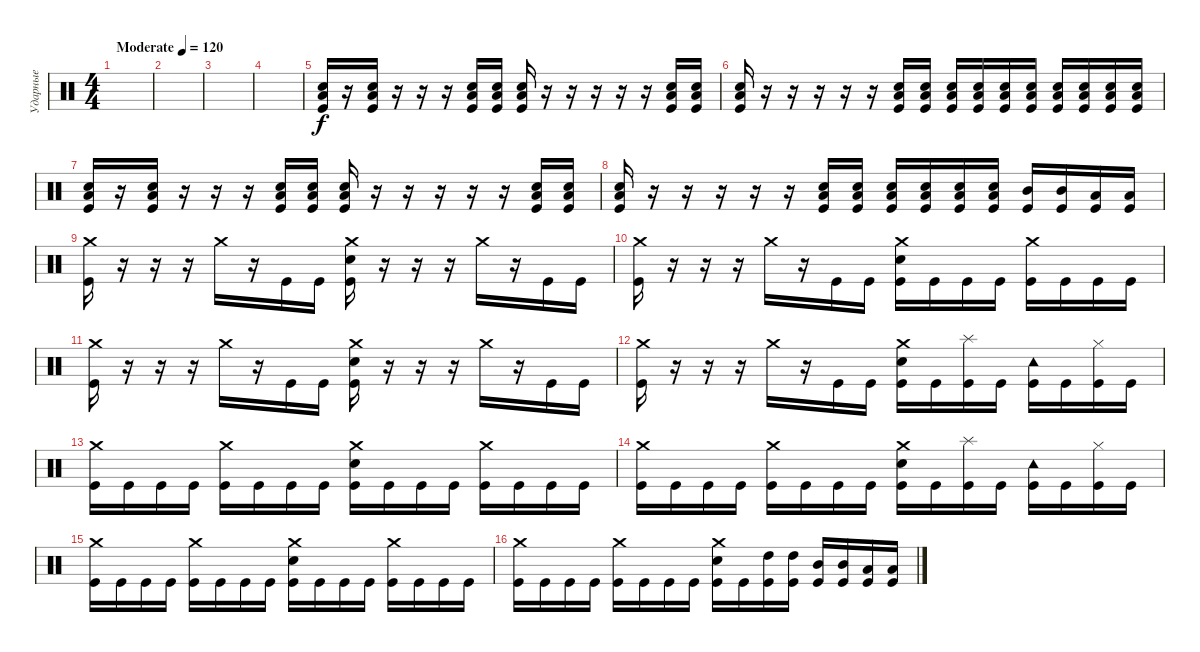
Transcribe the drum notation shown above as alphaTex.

\track ("Ударные" "Ударные") {instrument percussion}
\staff {score}
\articulation defaults
\ts (4 4)
\tempo (120 "Moderate")
\clef neutral
\ks c
|
|
|
|
("Low Tom (hit)" "Snare (hit) 2" "Kick (hit)").16 r.16 ("Low Tom (hit)" "Snare (hit) 2" "Kick (hit)").16 r.16 r.16 r.16 ("Low Tom (hit)" "Snare (hit) 2" "Kick (hit)").16 ("Low Tom (hit)" "Snare (hit) 2" "Kick (hit)").16 ("Low Tom (hit)" "Snare (hit) 2" "Kick (hit)").16 r.16 r.16 r.16 r.16 r.16 ("Low Tom (hit)" "Snare (hit) 2" "Kick (hit)").16 ("Low Tom (hit)" "Snare (hit) 2" "Kick (hit)").16 |
("Low Tom (hit)" "Snare (hit) 2" "Kick (hit)").16 r.16 r.16 r.16 r.16 r.16 ("Low Tom (hit)" "Snare (hit) 2" "Kick (hit)").16 ("Low Tom (hit)" "Snare (hit) 2" "Kick (hit)").16 ("Low Tom (hit)" "Snare (hit) 2" "Kick (hit)").16 ("Low Tom (hit)" "Snare (hit) 2" "Kick (hit)").16 ("Low Tom (hit)" "Snare (hit) 2" "Kick (hit)").16 ("Low Tom (hit)" "Snare (hit) 2" "Kick (hit)").16 ("Low Tom (hit)" "Snare (hit) 2" "Kick (hit)").16 ("Low Tom (hit)" "Snare (hit) 2" "Kick (hit)").16 ("Low Tom (hit)" "Snare (hit) 2" "Kick (hit)").16 ("Low Tom (hit)" "Snare (hit) 2" "Kick (hit)").16 |
("Low Tom (hit)" "Snare (hit) 2" "Kick (hit)").16 r.16 ("Low Tom (hit)" "Snare (hit) 2" "Kick (hit)").16 r.16 r.16 r.16 ("Low Tom (hit)" "Snare (hit) 2" "Kick (hit)").16 ("Low Tom (hit)" "Snare (hit) 2" "Kick (hit)").16 ("Low Tom (hit)" "Snare (hit) 2" "Kick (hit)").16 r.16 r.16 r.16 r.16 r.16 ("Low Tom (hit)" "Snare (hit) 2" "Kick (hit)").16 ("Low Tom (hit)" "Snare (hit) 2" "Kick (hit)").16 |
("Low Tom (hit)" "Snare (hit) 2" "Kick (hit)").16 r.16 r.16 r.16 r.16 r.16 ("Low Tom (hit)" "Snare (hit) 2" "Kick (hit)").16 ("Low Tom (hit)" "Snare (hit) 2" "Kick (hit)").16 ("Low Tom (hit)" "Snare (hit) 2" "Kick (hit)").16 ("Low Tom (hit)" "Snare (hit) 2" "Kick (hit)").16 ("Low Tom (hit)" "Snare (hit) 2" "Kick (hit)").16 ("Low Tom (hit)" "Snare (hit) 2" "Kick (hit)").16 ("Mid Tom (hit)" "Kick (hit)").16 ("Mid Tom (hit)" "Kick (hit)").16 ("Low Tom (hit)" "Kick (hit)").16 ("Low Tom (hit)" "Kick (hit)").16 |
("Crash medium (hit)" "Kick (hit)").16 r.16 r.16 r.16 "Crash medium (hit)".16 r.16 "Kick (hit)".16 "Kick (hit)".16 ("Crash medium (hit)" "Snare (hit) 2" "Kick (hit)").16 r.16 r.16 r.16 "Crash medium (hit)".16 r.16 "Kick (hit)".16 "Kick (hit)".16 |
("Crash medium (hit)" "Kick (hit)").16 r.16 r.16 r.16 "Crash medium (hit)".16 r.16 "Kick (hit)".16 "Kick (hit)".16 ("Crash medium (hit)" "Snare (hit) 2" "Kick (hit)").16 "Kick (hit)".16 "Kick (hit)".16 "Kick (hit)".16 ("Crash medium (hit)" "Kick (hit)").16 "Kick (hit)".16 "Kick (hit)".16 "Kick (hit)".16 |
("Crash medium (hit)" "Kick (hit)").16 r.16 r.16 r.16 "Crash medium (hit)".16 r.16 "Kick (hit)".16 "Kick (hit)".16 ("Crash medium (hit)" "Snare (hit) 2" "Kick (hit)").16 r.16 r.16 r.16 "Crash medium (hit)".16 r.16 "Kick (hit)".16 "Kick (hit)".16 |
("Crash medium (hit)" "Kick (hit)").16 r.16 r.16 r.16 "Crash medium (hit)".16 r.16 "Kick (hit)".16 "Kick (hit)".16 ("Crash medium (hit)" "Snare (hit) 2" "Kick (hit)").16 "Kick (hit)".16 ("Splash (hit)" "Kick (hit)").16 "Kick (hit)".16 ("Tambourine (hit)" "Kick (hit)").16 "Kick (hit)".16 ("Hi-Hat (closed)" "Kick (hit)").16 "Kick (hit)".16 |
("Crash medium (hit)" "Kick (hit)").16 "Kick (hit)".16 "Kick (hit)".16 "Kick (hit)".16 ("Crash medium (hit)" "Kick (hit)").16 "Kick (hit)".16 "Kick (hit)".16 "Kick (hit)".16 ("Crash medium (hit)" "Snare (hit) 2" "Kick (hit)").16 "Kick (hit)".16 "Kick (hit)".16 "Kick (hit)".16 ("Crash medium (hit)" "Kick (hit)").16 "Kick (hit)".16 "Kick (hit)".16 "Kick (hit)".16 |
("Crash medium (hit)" "Kick (hit)").16 "Kick (hit)".16 "Kick (hit)".16 "Kick (hit)".16 ("Crash medium (hit)" "Kick (hit)").16 "Kick (hit)".16 "Kick (hit)".16 "Kick (hit)".16 ("Crash medium (hit)" "Snare (hit) 2" "Kick (hit)").16 "Kick (hit)".16 ("Splash (hit)" "Kick (hit)").16 "Kick (hit)".16 ("Tambourine (hit)" "Kick (hit)").16 "Kick (hit)".16 ("Hi-Hat (closed)" "Kick (hit)").16 "Kick (hit)".16 |
("Crash medium (hit)" "Kick (hit)").16 "Kick (hit)".16 "Kick (hit)".16 "Kick (hit)".16 ("Crash medium (hit)" "Kick (hit)").16 "Kick (hit)".16 "Kick (hit)".16 "Kick (hit)".16 ("Crash medium (hit)" "Snare (hit) 2" "Kick (hit)").16 "Kick (hit)".16 "Kick (hit)".16 "Kick (hit)".16 ("Crash medium (hit)" "Kick (hit)").16 "Kick (hit)".16 "Kick (hit)".16 "Kick (hit)".16 |
("Crash medium (hit)" "Kick (hit)").16 "Kick (hit)".16 "Kick (hit)".16 "Kick (hit)".16 ("Crash medium (hit)" "Kick (hit)").16 "Kick (hit)".16 "Kick (hit)".16 "Kick (hit)".16 ("Crash medium (hit)" "Snare (hit) 2" "Kick (hit)").16 "Kick (hit)".16 ("High Tom (hit)" "Kick (hit)").16 ("High Tom (hit)" "Kick (hit)").16 ("Mid Tom (hit)" "Kick (hit)").16 ("Mid Tom (hit)" "Kick (hit)").16 ("Low Tom (hit)" "Kick (hit)").16 ("Low Tom (hit)" "Kick (hit)").16
